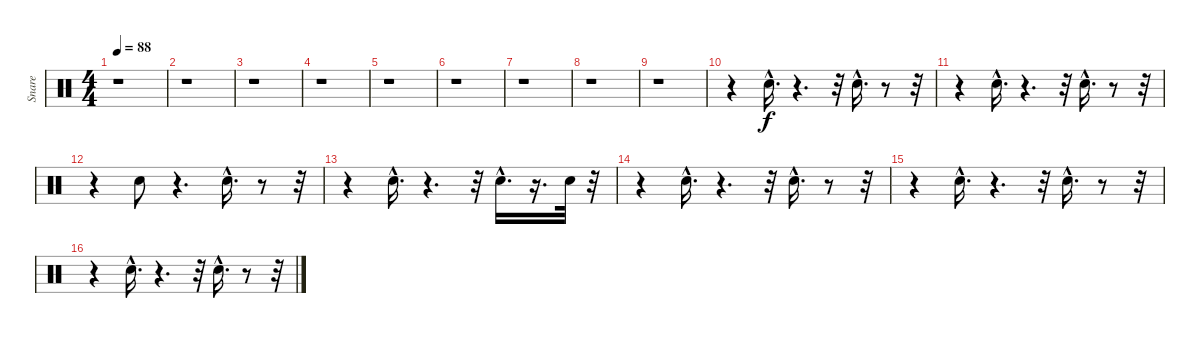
\track ("Snare" "Snare") {instrument percussion}
\staff {score}
\articulation defaults
\ts (4 4)
\tempo 88
\clef neutral
\ks c
r.1{dy f} |
r.1 |
r.1 |
r.1 |
r.1 |
r.1 |
r.1 |
r.1 |
r.1 |
r.4 "Snare (hit) 2"{hac}.16{d} r.4{d} r.32 "Snare (hit) 2"{hac}.16{d} r.8 r.32 |
r.4 "Snare (hit) 2"{hac}.16{d} r.4{d} r.32 "Snare (hit) 2"{hac}.16{d} r.8 r.32 |
r.4 "Snare (hit) 2".8 r.4{d} "Snare (hit) 2"{hac}.16{d} r.8 r.32 |
r.4 "Snare (hit) 2"{hac}.16{d} r.4{d} r.32 "Snare (hit) 2"{hac}.16{d} r.16{d} "Snare (hit) 2".32 r.32 |
r.4 "Snare (hit) 2"{hac}.16{d} r.4{d} r.32 "Snare (hit) 2"{hac}.16{d} r.8 r.32 |
r.4 "Snare (hit) 2"{hac}.16{d} r.4{d} r.32 "Snare (hit) 2"{hac}.16{d} r.8 r.32 |
r.4 "Snare (hit) 2"{hac}.16{d} r.4{d} r.32 "Snare (hit) 2"{hac}.16{d} r.8 r.32
